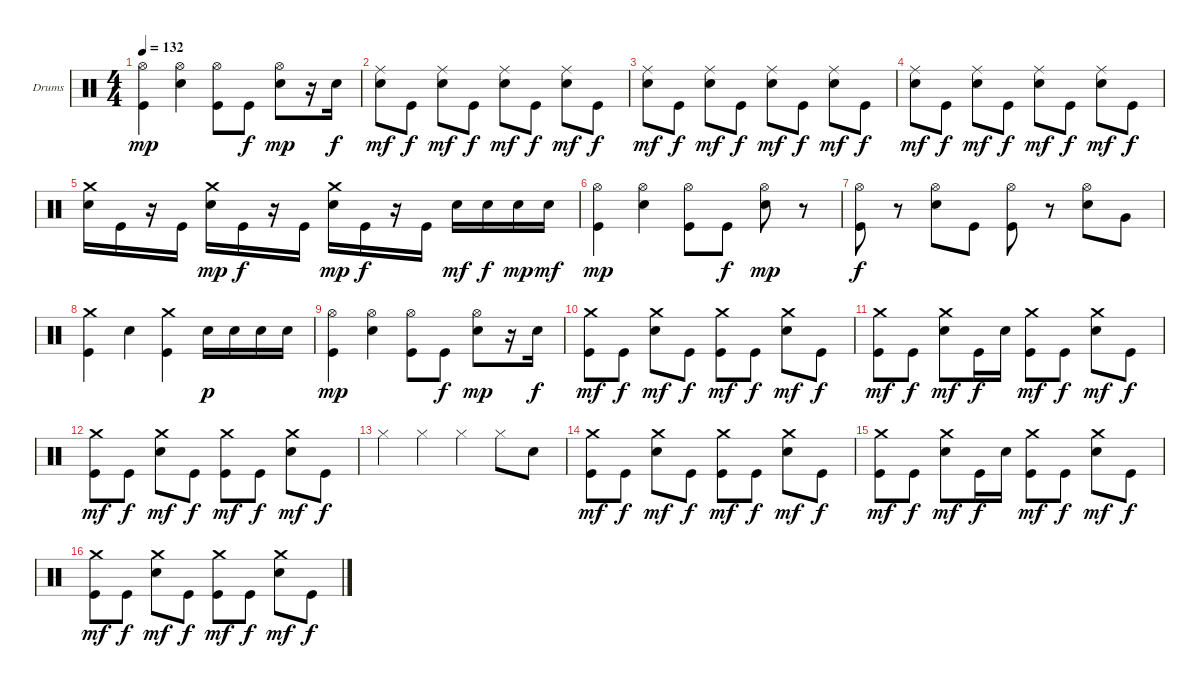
\bracketExtendMode groupsimilarinstruments
\firstSystemTrackNameOrientation horizontal
\otherSystemsTrackNameOrientation horizontal
\track ("Drumkit" "Drums") {instrument percussion}
\staff {score}
\articulation defaults
\ts (4 4)
\tempo 132
\clef neutral
\ks c
("Hi-Hat (open)" "Kick (hit)").4{dy mp} ("Hi-Hat (open)" "Snare (hit) 2").4 ("Hi-Hat (open)" "Kick (hit)").8 "Kick (hit)".8{dy f} ("Hi-Hat (open)" "Snare (hit) 2").8{dy mp} r.16 "Snare (hit) 2".16{dy f} |
("Ride (middle)" "Snare (hit) 2").8{dy mf} "Kick (hit)".8{dy f} ("Ride (middle)" "Snare (hit) 2").8{dy mf} "Kick (hit)".8{dy f} ("Ride (middle)" "Snare (hit) 2").8{dy mf} "Kick (hit)".8{dy f} ("Ride (middle)" "Snare (hit) 2").8{dy mf} "Kick (hit)".8{dy f} |
("Ride (middle)" "Snare (hit) 2").8{dy mf} "Kick (hit)".8{dy f} ("Ride (middle)" "Snare (hit) 2").8{dy mf} "Kick (hit)".8{dy f} ("Ride (middle)" "Snare (hit) 2").8{dy mf} "Kick (hit)".8{dy f} ("Ride (middle)" "Snare (hit) 2").8{dy mf} "Kick (hit)".8{dy f} |
("Ride (middle)" "Snare (hit) 2").8{dy mf} "Kick (hit)".8{dy f} ("Ride (middle)" "Snare (hit) 2").8{dy mf} "Kick (hit)".8{dy f} ("Ride (middle)" "Snare (hit) 2").8{dy mf} "Kick (hit)".8{dy f} ("Ride (middle)" "Snare (hit) 2").8{dy mf} "Kick (hit)".8{dy f} |
("Crash medium (hit)" "Snare (hit) 2").16 "Kick (hit)".16 r.16 "Kick (hit)".16 ("Crash medium (hit)" "Snare (hit) 2").16{dy mp} "Kick (hit)".16{dy f} r.16 "Kick (hit)".16 ("Crash medium (hit)" "Snare (hit) 2").16{dy mp} "Kick (hit)".16{dy f} r.16 "Kick (hit)".16 "Snare (hit) 2".16{dy mf} "Snare (hit) 2".16{dy f} "Snare (hit) 2".16{dy mp} "Snare (hit) 2".16{dy mf} |
("Hi-Hat (open)" "Kick (hit)").4{dy mp} ("Hi-Hat (open)" "Snare (hit) 2").4 ("Hi-Hat (open)" "Kick (hit)").8 "Kick (hit)".8{dy f} ("Hi-Hat (open)" "Snare (hit) 2").8{dy mp} r.8 |
("Hi-Hat (open)" "Kick (hit)").8{dy f} r.8 ("Hi-Hat (open)" "Snare (hit) 2").8 "Kick (hit)".8 ("Hi-Hat (open)" "Kick (hit)").8 r.8 ("Hi-Hat (open)" "Snare (hit) 2").8 "Very Low Tom (hit)".8 |
("Crash medium (hit)" "Kick (hit)").4 "Snare (hit) 2".4 ("Crash medium (hit)" "Kick (hit)").4 "Snare (hit) 2".16{dy p} "Snare (hit) 2".16 "Snare (hit) 2".16 "Snare (hit) 2".16 |
("Hi-Hat (open)" "Kick (hit)").4{dy mp} ("Hi-Hat (open)" "Snare (hit) 2").4 ("Hi-Hat (open)" "Kick (hit)").8 "Kick (hit)".8{dy f} ("Hi-Hat (open)" "Snare (hit) 2").8{dy mp} r.16 "Snare (hit) 2".16{dy f} |
("Crash medium (hit)" "Kick (hit)").8{dy mf} "Kick (hit)".8{dy f} ("Crash medium (hit)" "Snare (hit) 2").8{dy mf} "Kick (hit)".8{dy f} ("Crash medium (hit)" "Kick (hit)").8{dy mf} "Kick (hit)".8{dy f} ("Crash medium (hit)" "Snare (hit) 2").8{dy mf} "Kick (hit)".8{dy f} |
("Crash medium (hit)" "Kick (hit)").8{dy mf} "Kick (hit)".8{dy f} ("Crash medium (hit)" "Snare (hit) 2").8{dy mf} "Kick (hit)".16{dy f} "Snare (hit) 2".16 ("Crash medium (hit)" "Kick (hit)").8{dy mf} "Kick (hit)".8{dy f} ("Crash medium (hit)" "Snare (hit) 2").8{dy mf} "Kick (hit)".8{dy f} |
("Crash medium (hit)" "Kick (hit)").8{dy mf} "Kick (hit)".8{dy f} ("Crash medium (hit)" "Snare (hit) 2").8{dy mf} "Kick (hit)".8{dy f} ("Crash medium (hit)" "Kick (hit)").8{dy mf} "Kick (hit)".8{dy f} ("Crash medium (hit)" "Snare (hit) 2").8{dy mf} "Kick (hit)".8{dy f} |
"Hi-Hat (closed)".4 "Hi-Hat (closed)".4 "Hi-Hat (closed)".4 "Hi-Hat (closed)".8 "Snare (hit) 2".8 |
("Crash medium (hit)" "Kick (hit)").8{dy mf} "Kick (hit)".8{dy f} ("Crash medium (hit)" "Snare (hit) 2").8{dy mf} "Kick (hit)".8{dy f} ("Crash medium (hit)" "Kick (hit)").8{dy mf} "Kick (hit)".8{dy f} ("Crash medium (hit)" "Snare (hit) 2").8{dy mf} "Kick (hit)".8{dy f} |
("Crash medium (hit)" "Kick (hit)").8{dy mf} "Kick (hit)".8{dy f} ("Crash medium (hit)" "Snare (hit) 2").8{dy mf} "Kick (hit)".16{dy f} "Snare (hit) 2".16 ("Crash medium (hit)" "Kick (hit)").8{dy mf} "Kick (hit)".8{dy f} ("Crash medium (hit)" "Snare (hit) 2").8{dy mf} "Kick (hit)".8{dy f} |
("Crash medium (hit)" "Kick (hit)").8{dy mf} "Kick (hit)".8{dy f} ("Crash medium (hit)" "Snare (hit) 2").8{dy mf} "Kick (hit)".8{dy f} ("Crash medium (hit)" "Kick (hit)").8{dy mf} "Kick (hit)".8{dy f} ("Crash medium (hit)" "Snare (hit) 2").8{dy mf} "Kick (hit)".8{dy f}
